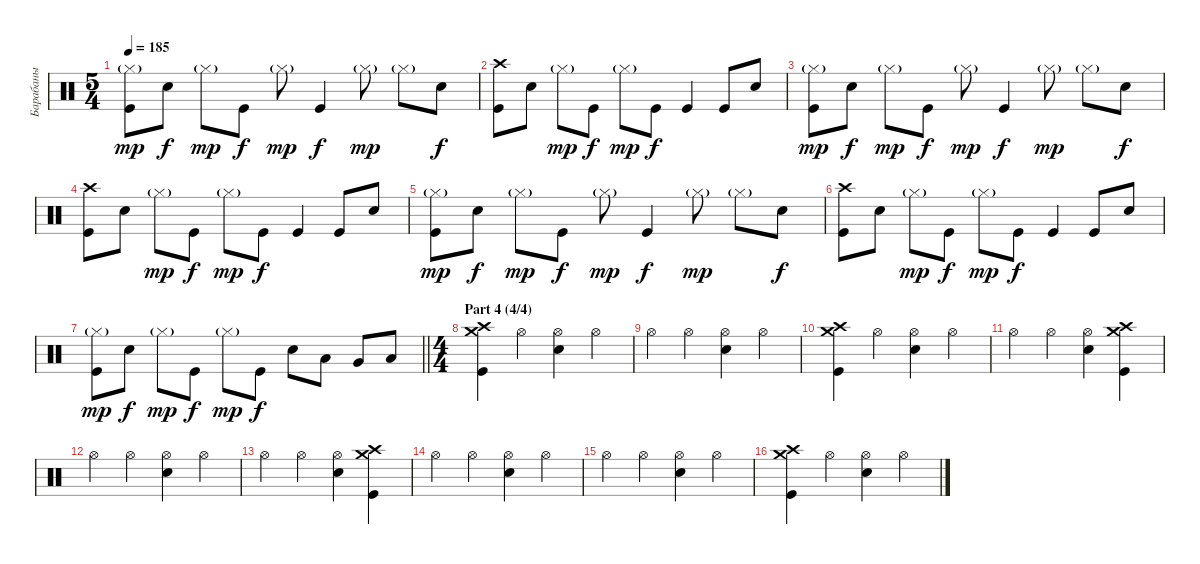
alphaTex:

\track ("Барабаны" "Барабаны") {instrument percussion}
\staff {score}
\articulation defaults
\ts (5 4)
\tempo 185
\clef neutral
\ks c
("Hi-Hat (closed)"{g} "Kick (hit)").8{dy mp} "Electric Snare (hit)".8{dy f} "Hi-Hat (closed)"{g}.8{dy mp} "Kick (hit)".8{dy f} "Hi-Hat (closed)"{g}.8{dy mp} "Kick (hit)".4{dy f} "Hi-Hat (closed)"{g}.8{dy mp} "Hi-Hat (closed)"{g}.8 "Electric Snare (hit)".8{dy f} |
("Crash high (hit)" "Kick (hit)").8 "Electric Snare (hit)".8 "Hi-Hat (closed)"{g}.8{dy mp} "Kick (hit)".8{dy f} "Hi-Hat (closed)"{g}.8{dy mp} "Kick (hit)".8{dy f} "Kick (hit)".4 "Kick (hit)".8 "Electric Snare (hit)".8 |
("Hi-Hat (closed)"{g} "Kick (hit)").8{dy mp} "Electric Snare (hit)".8{dy f} "Hi-Hat (closed)"{g}.8{dy mp} "Kick (hit)".8{dy f} "Hi-Hat (closed)"{g}.8{dy mp} "Kick (hit)".4{dy f} "Hi-Hat (closed)"{g}.8{dy mp} "Hi-Hat (closed)"{g}.8 "Electric Snare (hit)".8{dy f} |
("Crash high (hit)" "Kick (hit)").8 "Electric Snare (hit)".8 "Hi-Hat (closed)"{g}.8{dy mp} "Kick (hit)".8{dy f} "Hi-Hat (closed)"{g}.8{dy mp} "Kick (hit)".8{dy f} "Kick (hit)".4 "Kick (hit)".8 "Electric Snare (hit)".8 |
("Hi-Hat (closed)"{g} "Kick (hit)").8{dy mp} "Electric Snare (hit)".8{dy f} "Hi-Hat (closed)"{g}.8{dy mp} "Kick (hit)".8{dy f} "Hi-Hat (closed)"{g}.8{dy mp} "Kick (hit)".4{dy f} "Hi-Hat (closed)"{g}.8{dy mp} "Hi-Hat (closed)"{g}.8 "Electric Snare (hit)".8{dy f} |
("Crash high (hit)" "Kick (hit)").8 "Electric Snare (hit)".8 "Hi-Hat (closed)"{g}.8{dy mp} "Kick (hit)".8{dy f} "Hi-Hat (closed)"{g}.8{dy mp} "Kick (hit)".8{dy f} "Kick (hit)".4 "Kick (hit)".8 "Electric Snare (hit)".8 |
\barLineRight lightlight
("Hi-Hat (closed)"{g} "Kick (hit)").8{dy mp} "Electric Snare (hit)".8{dy f} "Hi-Hat (closed)"{g}.8{dy mp} "Kick (hit)".8{dy f} "Hi-Hat (closed)"{g}.8{dy mp} "Kick (hit)".8{dy f} "Electric Snare (hit)".8 "Low Tom (hit)".8 "Very Low Tom (hit)".8 "Low Floor Tom (hit)".8 |
\ts (4 4)
\section ("" "Part 4 (4/4)")
("Crash medium (hit)" "Crash high (hit)" "Kick (hit)").4 "Hi-Hat (open)".4 ("Hi-Hat (open)" "Electric Snare (hit)").4 "Hi-Hat (open)".4 |
"Hi-Hat (open)".4 "Hi-Hat (open)".4 ("Hi-Hat (open)" "Electric Snare (hit)").4 "Hi-Hat (open)".4 |
("Crash medium (hit)" "Crash high (hit)" "Kick (hit)").4 "Hi-Hat (open)".4 ("Hi-Hat (open)" "Electric Snare (hit)").4 "Hi-Hat (open)".4 |
"Hi-Hat (open)".4 "Hi-Hat (open)".4 ("Hi-Hat (open)" "Electric Snare (hit)").4 ("Crash medium (hit)" "Crash high (hit)" "Kick (hit)").4 |
"Hi-Hat (open)".4 "Hi-Hat (open)".4 ("Hi-Hat (open)" "Electric Snare (hit)").4 "Hi-Hat (open)".4 |
"Hi-Hat (open)".4 "Hi-Hat (open)".4 ("Hi-Hat (open)" "Electric Snare (hit)").4 ("Crash medium (hit)" "Crash high (hit)" "Kick (hit)").4 |
"Hi-Hat (open)".4 "Hi-Hat (open)".4 ("Hi-Hat (open)" "Electric Snare (hit)").4 "Hi-Hat (open)".4 |
"Hi-Hat (open)".4 "Hi-Hat (open)".4 ("Hi-Hat (open)" "Electric Snare (hit)").4 "Hi-Hat (open)".4 |
("Crash medium (hit)" "Crash high (hit)" "Kick (hit)").4 "Hi-Hat (open)".4 ("Hi-Hat (open)" "Electric Snare (hit)").4 "Hi-Hat (open)".4
